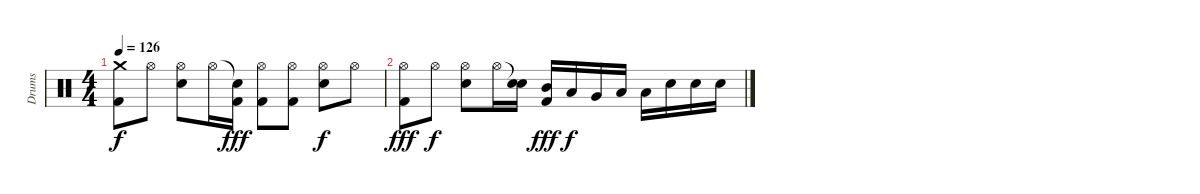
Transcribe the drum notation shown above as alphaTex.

\track ("Drums" "Drums") {instrument percussion}
\staff {score}
\articulation defaults
\ts (4 4)
\tempo 126
\clef neutral
\ks c
("Crash medium (hit)" "Kick (hit) 2").8{dy f} "Hi-Hat (open)".8 ("Hi-Hat (open)" "Snare (hit) 2").8 "Hi-Hat (open)".16 ("Snare (hit)"{t} "Kick (hit) 2").16{dy fff} ("Hi-Hat (open)" "Kick (hit) 2").8 ("Hi-Hat (open)" "Kick (hit) 2").8 ("Hi-Hat (open)" "Snare (hit) 2").8{dy f} "Hi-Hat (open)".8 |
("Hi-Hat (open)" "Kick (hit) 2").8{dy fff} "Hi-Hat (open)".8{dy f} ("Hi-Hat (open)" "Snare (hit) 2").8 "Hi-Hat (open)".16 ("Snare (hit)"{t} "Snare (hit) 2").16 ("Mid Tom (hit)" "Kick (hit) 2").16{dy fff} "Low Tom (hit)".16{dy f} "Very Low Tom (hit)".16 "Low Floor Tom (hit)".16 "Low Floor Tom (hit)".16 "Snare (hit) 2".16 "Snare (hit) 2".16 "Snare (hit) 2".16
